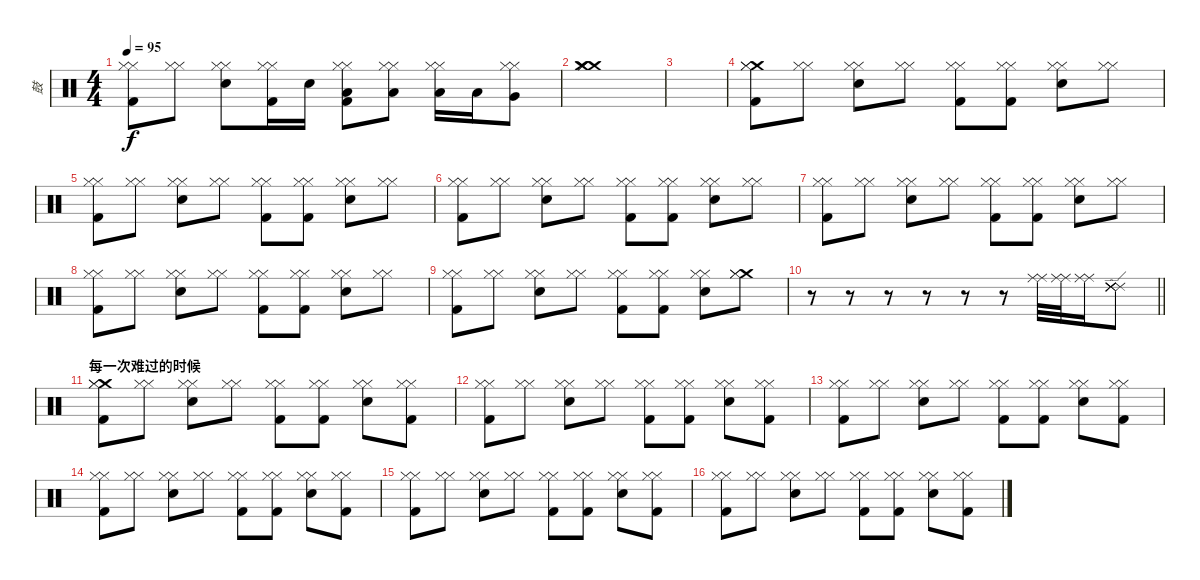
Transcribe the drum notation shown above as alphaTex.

\track ("鼓" "鼓") {instrument percussion}
\staff {score}
\articulation defaults
\ts (4 4)
\tempo 95
\clef neutral
\ks c
("Hi-Hat (closed)" "Hi-Hat (closed)" "Kick (hit) 2").8{dy f} ("Hi-Hat (closed)" "Hi-Hat (closed)").8 ("Hi-Hat (closed)" "Hi-Hat (closed)" "Metronome (bell)").8 ("Hi-Hat (closed)" "Hi-Hat (closed)" "Kick (hit) 2").16 "Metronome (bell)".16 ("Hi-Hat (closed)" "Hi-Hat (closed)" "Low Floor Tom (hit)" "Kick (hit) 2").8 ("Hi-Hat (closed)" "Hi-Hat (closed)" "Low Tom (hit)").8 ("Hi-Hat (closed)" "Hi-Hat (closed)" "Low Floor Tom (hit)").16{volume 11} "Low Tom (hit)".16{volume 12} ("Hi-Hat (closed)" "Hi-Hat (closed)" "Very Low Tom (hit)").8{volume 13} |
("Crash medium (hit)" "Hi-Hat (closed)" "Hi-Hat (closed)" "Crash medium (hit)").1{volume 14} |
|
("Crash medium (hit)" "Hi-Hat (closed)" "Hi-Hat (closed)" "Kick (hit) 2").8{volume 13} ("Hi-Hat (closed)" "Hi-Hat (closed)").8 ("Hi-Hat (closed)" "Hi-Hat (closed)" "Metronome (bell)").8 ("Hi-Hat (closed)" "Hi-Hat (closed)").8 ("Hi-Hat (closed)" "Hi-Hat (closed)" "Kick (hit) 2").8 ("Hi-Hat (closed)" "Hi-Hat (closed)" "Kick (hit) 2").8 ("Hi-Hat (closed)" "Hi-Hat (closed)" "Metronome (bell)").8 ("Hi-Hat (closed)" "Hi-Hat (closed)").8 |
("Hi-Hat (closed)" "Hi-Hat (closed)" "Kick (hit) 2").8 ("Hi-Hat (closed)" "Hi-Hat (closed)").8 ("Hi-Hat (closed)" "Hi-Hat (closed)" "Metronome (bell)").8 ("Hi-Hat (closed)" "Hi-Hat (closed)").8 ("Hi-Hat (closed)" "Hi-Hat (closed)" "Kick (hit) 2").8 ("Hi-Hat (closed)" "Hi-Hat (closed)" "Kick (hit) 2").8 ("Hi-Hat (closed)" "Hi-Hat (closed)" "Metronome (bell)").8 ("Hi-Hat (closed)" "Hi-Hat (closed)").8 |
("Hi-Hat (closed)" "Hi-Hat (closed)" "Kick (hit) 2").8 ("Hi-Hat (closed)" "Hi-Hat (closed)").8 ("Hi-Hat (closed)" "Hi-Hat (closed)" "Metronome (bell)").8 ("Hi-Hat (closed)" "Hi-Hat (closed)").8 ("Hi-Hat (closed)" "Hi-Hat (closed)" "Kick (hit) 2").8 ("Hi-Hat (closed)" "Hi-Hat (closed)" "Kick (hit) 2").8 ("Hi-Hat (closed)" "Hi-Hat (closed)" "Metronome (bell)").8 ("Hi-Hat (closed)" "Hi-Hat (closed)").8 |
("Hi-Hat (closed)" "Hi-Hat (closed)" "Kick (hit) 2").8 ("Hi-Hat (closed)" "Hi-Hat (closed)").8 ("Hi-Hat (closed)" "Hi-Hat (closed)" "Metronome (bell)").8 ("Hi-Hat (closed)" "Hi-Hat (closed)").8 ("Hi-Hat (closed)" "Hi-Hat (closed)" "Kick (hit) 2").8 ("Hi-Hat (closed)" "Hi-Hat (closed)" "Kick (hit) 2").8 ("Hi-Hat (closed)" "Hi-Hat (closed)" "Metronome (bell)").8 ("Hi-Hat (closed)" "Hi-Hat (closed)").8 |
("Hi-Hat (closed)" "Hi-Hat (closed)" "Kick (hit) 2").8 ("Hi-Hat (closed)" "Hi-Hat (closed)").8 ("Hi-Hat (closed)" "Hi-Hat (closed)" "Metronome (bell)").8 ("Hi-Hat (closed)" "Hi-Hat (closed)").8 ("Hi-Hat (closed)" "Hi-Hat (closed)" "Kick (hit) 2").8 ("Hi-Hat (closed)" "Hi-Hat (closed)" "Kick (hit) 2").8 ("Hi-Hat (closed)" "Hi-Hat (closed)" "Metronome (bell)").8 ("Hi-Hat (closed)" "Hi-Hat (closed)").8 |
("Hi-Hat (closed)" "Hi-Hat (closed)" "Kick (hit) 2").8 ("Hi-Hat (closed)" "Hi-Hat (closed)").8 ("Hi-Hat (closed)" "Hi-Hat (closed)" "Metronome (bell)").8 ("Hi-Hat (closed)" "Hi-Hat (closed)").8 ("Hi-Hat (closed)" "Hi-Hat (closed)" "Kick (hit) 2").8 ("Hi-Hat (closed)" "Hi-Hat (closed)" "Kick (hit) 2").8 ("Hi-Hat (closed)" "Hi-Hat (closed)" "Metronome (bell)").8 ("Crash medium (hit)" "Hi-Hat (closed)" "Hi-Hat (closed)").8 |
\barLineRight lightlight
r.8 r.8 r.8 r.8 r.8 r.8 ("Ride (middle)" "Ride (middle)").32 ("Ride (middle)" "Ride (middle)").32 ("Ride (middle)" "Ride (middle)").16{volume 14} ("Ride (edge) 2" "Ride (edge) 2" "Ride (edge) 2" "Ride (edge) 2" "Ride (edge) 2").8{volume 15} |
\section ("" "每一次难过的时候")
("Crash medium (hit)" "Hi-Hat (closed)" "Hi-Hat (closed)" "Kick (hit) 2").8{volume 13} ("Hi-Hat (closed)" "Hi-Hat (closed)").8 ("Hi-Hat (closed)" "Hi-Hat (closed)" "Metronome (bell)").8 ("Hi-Hat (closed)" "Hi-Hat (closed)").8 ("Hi-Hat (closed)" "Hi-Hat (closed)" "Kick (hit) 2").8 ("Hi-Hat (closed)" "Hi-Hat (closed)" "Kick (hit) 2").8 ("Hi-Hat (closed)" "Hi-Hat (closed)" "Metronome (bell)").8 ("Hi-Hat (closed)" "Hi-Hat (closed)" "Kick (hit) 2").8 |
("Hi-Hat (closed)" "Hi-Hat (closed)" "Kick (hit) 2").8 ("Hi-Hat (closed)" "Hi-Hat (closed)").8 ("Hi-Hat (closed)" "Hi-Hat (closed)" "Metronome (bell)").8 ("Hi-Hat (closed)" "Hi-Hat (closed)").8 ("Hi-Hat (closed)" "Hi-Hat (closed)" "Kick (hit) 2").8 ("Hi-Hat (closed)" "Hi-Hat (closed)" "Kick (hit) 2").8 ("Hi-Hat (closed)" "Hi-Hat (closed)" "Metronome (bell)").8 ("Hi-Hat (closed)" "Hi-Hat (closed)" "Kick (hit) 2").8 |
("Hi-Hat (closed)" "Hi-Hat (closed)" "Kick (hit) 2").8 ("Hi-Hat (closed)" "Hi-Hat (closed)").8 ("Hi-Hat (closed)" "Hi-Hat (closed)" "Metronome (bell)").8 ("Hi-Hat (closed)" "Hi-Hat (closed)").8 ("Hi-Hat (closed)" "Hi-Hat (closed)" "Kick (hit) 2").8 ("Hi-Hat (closed)" "Hi-Hat (closed)" "Kick (hit) 2").8 ("Hi-Hat (closed)" "Hi-Hat (closed)" "Metronome (bell)").8 ("Hi-Hat (closed)" "Hi-Hat (closed)" "Kick (hit) 2").8 |
("Hi-Hat (closed)" "Hi-Hat (closed)" "Kick (hit) 2").8 ("Hi-Hat (closed)" "Hi-Hat (closed)").8 ("Hi-Hat (closed)" "Hi-Hat (closed)" "Metronome (bell)").8 ("Hi-Hat (closed)" "Hi-Hat (closed)").8 ("Hi-Hat (closed)" "Hi-Hat (closed)" "Kick (hit) 2").8 ("Hi-Hat (closed)" "Hi-Hat (closed)" "Kick (hit) 2").8 ("Hi-Hat (closed)" "Hi-Hat (closed)" "Metronome (bell)").8 ("Hi-Hat (closed)" "Hi-Hat (closed)" "Kick (hit) 2").8 |
("Hi-Hat (closed)" "Hi-Hat (closed)" "Kick (hit) 2").8 ("Hi-Hat (closed)" "Hi-Hat (closed)").8 ("Hi-Hat (closed)" "Hi-Hat (closed)" "Metronome (bell)").8 ("Hi-Hat (closed)" "Hi-Hat (closed)").8 ("Hi-Hat (closed)" "Hi-Hat (closed)" "Kick (hit) 2").8 ("Hi-Hat (closed)" "Hi-Hat (closed)" "Kick (hit) 2").8 ("Hi-Hat (closed)" "Hi-Hat (closed)" "Metronome (bell)").8 ("Hi-Hat (closed)" "Hi-Hat (closed)" "Kick (hit) 2").8 |
("Hi-Hat (closed)" "Hi-Hat (closed)" "Kick (hit) 2").8 ("Hi-Hat (closed)" "Hi-Hat (closed)").8 ("Hi-Hat (closed)" "Hi-Hat (closed)" "Metronome (bell)").8 ("Hi-Hat (closed)" "Hi-Hat (closed)").8 ("Hi-Hat (closed)" "Hi-Hat (closed)" "Kick (hit) 2").8 ("Hi-Hat (closed)" "Hi-Hat (closed)" "Kick (hit) 2").8 ("Hi-Hat (closed)" "Hi-Hat (closed)" "Metronome (bell)").8 ("Hi-Hat (closed)" "Hi-Hat (closed)" "Kick (hit) 2").8
